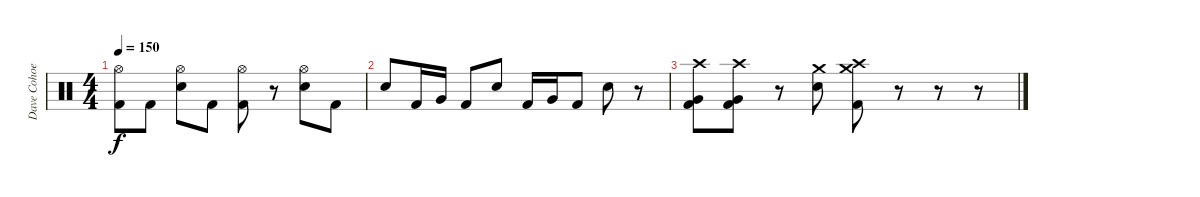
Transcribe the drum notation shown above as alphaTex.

\track ("Dave Cohoe" "Dave Cohoe") {instrument percussion}
\staff {score}
\articulation defaults
\ts (4 4)
\tempo 150
\clef neutral
\ks c
("Hi-Hat (open)" "Kick (hit) 2").8{dy f} "Kick (hit) 2".8 ("Hi-Hat (open)" "Snare (hit) 2").8 "Kick (hit) 2".8 ("Hi-Hat (open)" "Kick (hit) 2").8 r.8 ("Hi-Hat (open)" "Snare (hit) 2").8 "Kick (hit) 2".8 |
"Snare (hit) 2".8 "Kick (hit) 2".16 "Very Low Tom (hit)".16 "Kick (hit) 2".8 "Snare (hit) 2".8 "Kick (hit) 2".16 "Very Low Tom (hit)".16 "Kick (hit) 2".8 "Snare (hit) 2".8 r.8 |
("Crash high (hit)" "Very Low Tom (hit)" "Kick (hit) 2").8 ("Crash high (hit)" "Very Low Tom (hit)" "Kick (hit) 2").8 r.8 ("Crash medium (hit)" "Snare (hit) 2").8 ("Crash high (hit)" "Crash medium (hit)" "Kick (hit) 2").8 r.8 r.8 r.8
